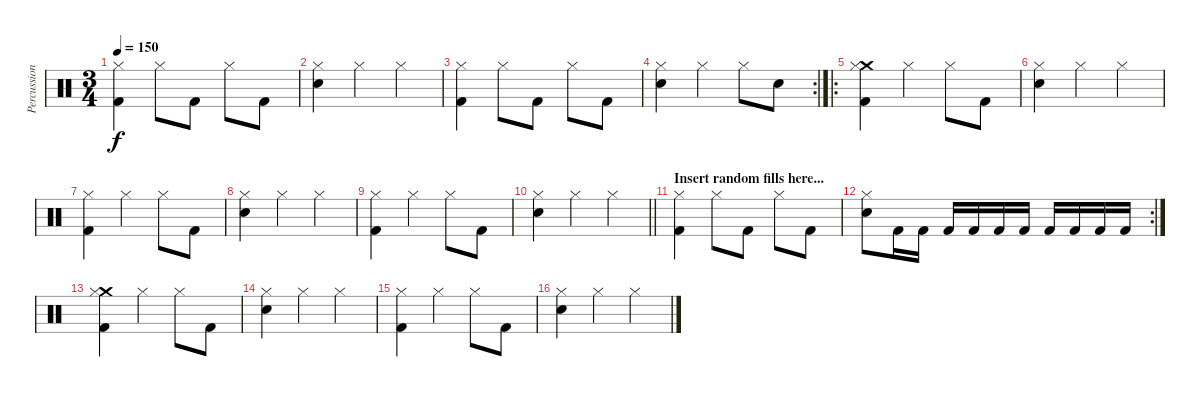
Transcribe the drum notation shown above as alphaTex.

\track ("Percussion" "Percussion") {instrument percussion}
\staff {score}
\articulation defaults
\ts (3 4)
\tempo 150
\clef neutral
\ks c
("Hi-Hat (closed)" "Kick (hit) 2").4{dy f} "Hi-Hat (closed)".8 "Kick (hit) 2".8 "Hi-Hat (closed)".8 "Kick (hit) 2".8 |
("Hi-Hat (closed)" "Snare (hit) 2").4 "Hi-Hat (closed)".4 "Hi-Hat (closed)".4 |
("Hi-Hat (closed)" "Kick (hit) 2").4 "Hi-Hat (closed)".8 "Kick (hit) 2".8 "Hi-Hat (closed)".8 "Kick (hit) 2".8 |
\rc 2
("Hi-Hat (closed)" "Snare (hit) 2").4 "Hi-Hat (closed)".4 "Hi-Hat (closed)".8 "Snare (hit) 2".8 |
\ro
("Crash medium (hit)" "Hi-Hat (closed)" "Kick (hit) 2").4 "Hi-Hat (closed)".4 "Hi-Hat (closed)".8 "Kick (hit) 2".8 |
("Hi-Hat (closed)" "Snare (hit) 2").4 "Hi-Hat (closed)".4 "Hi-Hat (closed)".4 |
("Hi-Hat (closed)" "Kick (hit) 2").4 "Hi-Hat (closed)".4 "Hi-Hat (closed)".8 "Kick (hit) 2".8 |
("Hi-Hat (closed)" "Snare (hit) 2").4 "Hi-Hat (closed)".4 "Hi-Hat (closed)".4 |
("Hi-Hat (closed)" "Kick (hit) 2").4 "Hi-Hat (closed)".4 "Hi-Hat (closed)".8 "Kick (hit) 2".8 |
\barLineRight lightlight
("Hi-Hat (closed)" "Snare (hit) 2").4 "Hi-Hat (closed)".4 "Hi-Hat (closed)".4 |
\section ("" "Insert random fills here...")
("Hi-Hat (closed)" "Kick (hit) 2").4 "Hi-Hat (closed)".8 "Kick (hit) 2".8 "Hi-Hat (closed)".8 "Kick (hit) 2".8 |
\rc 2
("Hi-Hat (closed)" "Snare (hit) 2").8 "Kick (hit) 2".16 "Kick (hit) 2".16 "Kick (hit) 2".16 "Kick (hit) 2".16 "Kick (hit) 2".16 "Kick (hit) 2".16 "Kick (hit) 2".16 "Kick (hit) 2".16 "Kick (hit) 2".16 "Kick (hit) 2".16 |
("Crash medium (hit)" "Hi-Hat (closed)" "Kick (hit) 2").4 "Hi-Hat (closed)".4 "Hi-Hat (closed)".8 "Kick (hit) 2".8 |
("Hi-Hat (closed)" "Snare (hit) 2").4 "Hi-Hat (closed)".4 "Hi-Hat (closed)".4 |
("Hi-Hat (closed)" "Kick (hit) 2").4 "Hi-Hat (closed)".4 "Hi-Hat (closed)".8 "Kick (hit) 2".8 |
("Hi-Hat (closed)" "Snare (hit) 2").4 "Hi-Hat (closed)".4 "Hi-Hat (closed)".4
